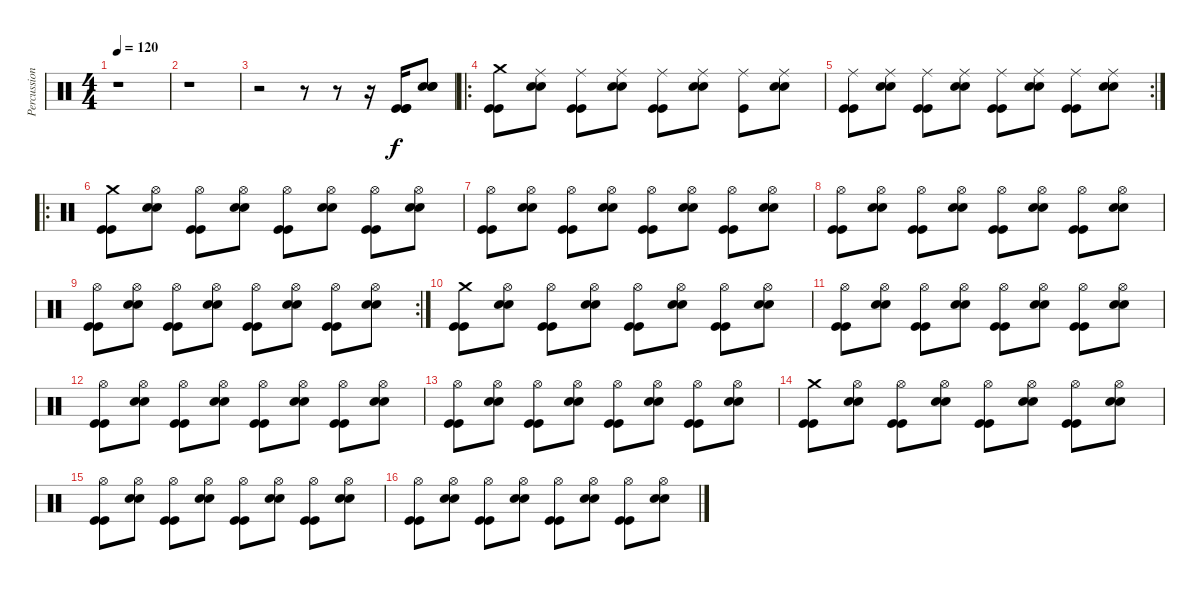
\track ("Percussion" "Percussion") {instrument percussion}
\staff {score}
\articulation defaults
\ts (4 4)
\tempo 120
\clef neutral
\ks c
r.1{dy f} |
r.1 |
r.2 r.8 r.8 r.16 ("Kick (hit)" "Kick (hit)" "Kick (hit)").16 ("Electric Snare (hit)" "Electric Snare (hit)" "Electric Snare (hit)").8 |
\ro
("Crash medium (hit)" "Kick (hit)" "Kick (hit)").8 ("Electric Snare (hit)" "Electric Snare (hit)" "Ride (middle)").8 ("Kick (hit)" "Kick (hit)" "Ride (middle)").8 ("Electric Snare (hit)" "Electric Snare (hit)" "Ride (middle)").8 ("Kick (hit)" "Kick (hit)" "Ride (middle)").8 ("Electric Snare (hit)" "Electric Snare (hit)" "Ride (middle)").8 ("Kick (hit)" "Ride (middle)").8 ("Electric Snare (hit)" "Electric Snare (hit)" "Ride (middle)").8 |
\rc 2
("Kick (hit)" "Kick (hit)" "Ride (middle)").8 ("Electric Snare (hit)" "Electric Snare (hit)" "Ride (middle)").8 ("Kick (hit)" "Kick (hit)" "Ride (middle)").8 ("Electric Snare (hit)" "Electric Snare (hit)" "Ride (middle)").8 ("Kick (hit)" "Kick (hit)" "Ride (middle)").8 ("Electric Snare (hit)" "Electric Snare (hit)" "Ride (middle)").8 ("Kick (hit)" "Kick (hit)" "Ride (middle)").8 ("Electric Snare (hit)" "Electric Snare (hit)" "Ride (middle)").8 |
\ro
("Crash medium (hit)" "Kick (hit)" "Kick (hit)").8 ("Electric Snare (hit)" "Electric Snare (hit)" "Hi-Hat (open)").8 ("Kick (hit)" "Kick (hit)" "Hi-Hat (open)").8 ("Electric Snare (hit)" "Electric Snare (hit)" "Hi-Hat (open)").8 ("Kick (hit)" "Kick (hit)" "Hi-Hat (open)").8 ("Electric Snare (hit)" "Electric Snare (hit)" "Hi-Hat (open)").8 ("Kick (hit)" "Kick (hit)" "Hi-Hat (open)").8 ("Electric Snare (hit)" "Electric Snare (hit)" "Hi-Hat (open)").8 |
("Kick (hit)" "Kick (hit)" "Hi-Hat (open)").8 ("Electric Snare (hit)" "Electric Snare (hit)" "Hi-Hat (open)").8 ("Kick (hit)" "Kick (hit)" "Hi-Hat (open)").8 ("Electric Snare (hit)" "Electric Snare (hit)" "Hi-Hat (open)").8 ("Kick (hit)" "Kick (hit)" "Hi-Hat (open)").8 ("Electric Snare (hit)" "Electric Snare (hit)" "Hi-Hat (open)").8 ("Kick (hit)" "Kick (hit)" "Hi-Hat (open)").8 ("Electric Snare (hit)" "Electric Snare (hit)" "Hi-Hat (open)").8 |
("Kick (hit)" "Kick (hit)" "Hi-Hat (open)").8 ("Electric Snare (hit)" "Electric Snare (hit)" "Hi-Hat (open)").8 ("Kick (hit)" "Kick (hit)" "Hi-Hat (open)").8 ("Electric Snare (hit)" "Electric Snare (hit)" "Hi-Hat (open)").8 ("Kick (hit)" "Kick (hit)" "Hi-Hat (open)").8 ("Electric Snare (hit)" "Electric Snare (hit)" "Hi-Hat (open)").8 ("Kick (hit)" "Kick (hit)" "Hi-Hat (open)").8 ("Electric Snare (hit)" "Electric Snare (hit)" "Hi-Hat (open)").8 |
\rc 2
("Kick (hit)" "Kick (hit)" "Hi-Hat (open)").8 ("Electric Snare (hit)" "Electric Snare (hit)" "Hi-Hat (open)").8 ("Kick (hit)" "Kick (hit)" "Hi-Hat (open)").8 ("Electric Snare (hit)" "Electric Snare (hit)" "Hi-Hat (open)").8 ("Kick (hit)" "Kick (hit)" "Hi-Hat (open)").8 ("Electric Snare (hit)" "Electric Snare (hit)" "Hi-Hat (open)").8 ("Kick (hit)" "Kick (hit)" "Hi-Hat (open)").8 ("Electric Snare (hit)" "Electric Snare (hit)" "Hi-Hat (open)").8 |
("Crash medium (hit)" "Kick (hit)" "Kick (hit)").8 ("Electric Snare (hit)" "Electric Snare (hit)" "Hi-Hat (open)").8 ("Kick (hit)" "Kick (hit)" "Hi-Hat (open)").8 ("Electric Snare (hit)" "Electric Snare (hit)" "Hi-Hat (open)").8 ("Kick (hit)" "Kick (hit)" "Hi-Hat (open)").8 ("Electric Snare (hit)" "Electric Snare (hit)" "Hi-Hat (open)").8 ("Kick (hit)" "Kick (hit)" "Hi-Hat (open)").8 ("Electric Snare (hit)" "Electric Snare (hit)" "Hi-Hat (open)").8 |
("Kick (hit)" "Kick (hit)" "Hi-Hat (open)").8 ("Electric Snare (hit)" "Electric Snare (hit)" "Hi-Hat (open)").8 ("Kick (hit)" "Kick (hit)" "Hi-Hat (open)").8 ("Electric Snare (hit)" "Electric Snare (hit)" "Hi-Hat (open)").8 ("Kick (hit)" "Kick (hit)" "Hi-Hat (open)").8 ("Electric Snare (hit)" "Electric Snare (hit)" "Hi-Hat (open)").8 ("Kick (hit)" "Kick (hit)" "Hi-Hat (open)").8 ("Electric Snare (hit)" "Electric Snare (hit)" "Hi-Hat (open)").8 |
("Kick (hit)" "Kick (hit)" "Hi-Hat (open)").8 ("Electric Snare (hit)" "Electric Snare (hit)" "Hi-Hat (open)").8 ("Kick (hit)" "Kick (hit)" "Hi-Hat (open)").8 ("Electric Snare (hit)" "Electric Snare (hit)" "Hi-Hat (open)").8 ("Kick (hit)" "Kick (hit)" "Hi-Hat (open)").8 ("Electric Snare (hit)" "Electric Snare (hit)" "Hi-Hat (open)").8 ("Kick (hit)" "Kick (hit)" "Hi-Hat (open)").8 ("Electric Snare (hit)" "Electric Snare (hit)" "Hi-Hat (open)").8 |
("Kick (hit)" "Kick (hit)" "Hi-Hat (open)").8 ("Electric Snare (hit)" "Electric Snare (hit)" "Hi-Hat (open)").8 ("Kick (hit)" "Kick (hit)" "Hi-Hat (open)").8 ("Electric Snare (hit)" "Electric Snare (hit)" "Hi-Hat (open)").8 ("Kick (hit)" "Kick (hit)" "Hi-Hat (open)").8 ("Electric Snare (hit)" "Electric Snare (hit)" "Hi-Hat (open)").8 ("Kick (hit)" "Kick (hit)" "Hi-Hat (open)").8 ("Electric Snare (hit)" "Electric Snare (hit)" "Hi-Hat (open)").8 |
("Crash medium (hit)" "Kick (hit)" "Kick (hit)").8 ("Electric Snare (hit)" "Electric Snare (hit)" "Hi-Hat (open)").8 ("Kick (hit)" "Kick (hit)" "Hi-Hat (open)").8 ("Electric Snare (hit)" "Electric Snare (hit)" "Hi-Hat (open)").8 ("Kick (hit)" "Kick (hit)" "Hi-Hat (open)").8 ("Electric Snare (hit)" "Electric Snare (hit)" "Hi-Hat (open)").8 ("Kick (hit)" "Kick (hit)" "Hi-Hat (open)").8 ("Electric Snare (hit)" "Electric Snare (hit)" "Hi-Hat (open)").8 |
("Kick (hit)" "Kick (hit)" "Hi-Hat (open)").8 ("Electric Snare (hit)" "Electric Snare (hit)" "Hi-Hat (open)").8 ("Kick (hit)" "Kick (hit)" "Hi-Hat (open)").8 ("Electric Snare (hit)" "Electric Snare (hit)" "Hi-Hat (open)").8 ("Kick (hit)" "Kick (hit)" "Hi-Hat (open)").8 ("Electric Snare (hit)" "Electric Snare (hit)" "Hi-Hat (open)").8 ("Kick (hit)" "Kick (hit)" "Hi-Hat (open)").8 ("Electric Snare (hit)" "Electric Snare (hit)" "Hi-Hat (open)").8 |
("Kick (hit)" "Kick (hit)" "Hi-Hat (open)").8 ("Electric Snare (hit)" "Electric Snare (hit)" "Hi-Hat (open)").8 ("Kick (hit)" "Kick (hit)" "Hi-Hat (open)").8 ("Electric Snare (hit)" "Electric Snare (hit)" "Hi-Hat (open)").8 ("Kick (hit)" "Kick (hit)" "Hi-Hat (open)").8 ("Electric Snare (hit)" "Electric Snare (hit)" "Hi-Hat (open)").8 ("Kick (hit)" "Kick (hit)" "Hi-Hat (open)").8 ("Electric Snare (hit)" "Electric Snare (hit)" "Hi-Hat (open)").8
